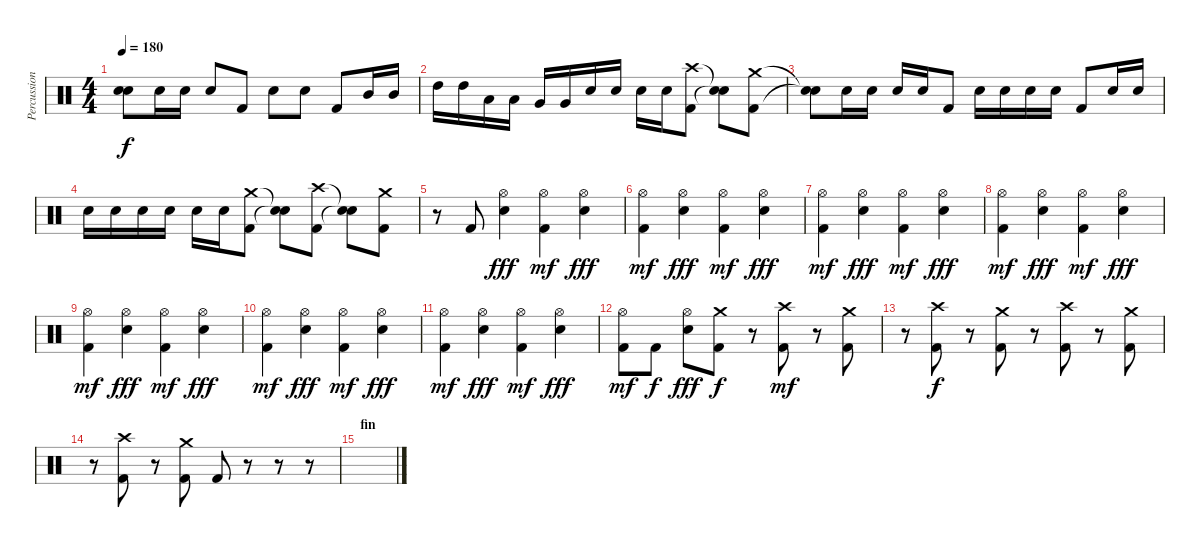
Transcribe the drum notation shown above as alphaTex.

\track ("Percussions" "Percussion") {instrument percussion}
\staff {score}
\articulation defaults
\ts (4 4)
\tempo 180
\clef neutral
\ks c
("Snare (hit)"{t} "Snare (hit)"{t}).8{dy f} "Electric Snare (hit)".16 "Electric Snare (hit)".16 "Electric Snare (hit)".8 "Kick (hit) 2".8 "Electric Snare (hit)".8 "Electric Snare (hit)".8 "Kick (hit) 2".8 "Mid Tom (hit)".16 "Mid Tom (hit)".16 |
"High Tom (hit)".16 "High Tom (hit)".16 "Low Tom (hit)".16 "Low Tom (hit)".16 "Very Low Tom (hit)".16 "Very Low Tom (hit)".16 "Electric Snare (hit)".16 "Electric Snare (hit)".16 "Electric Snare (hit)".16 "Electric Snare (hit)".16 ("Crash high (hit)" "Kick (hit) 2").8 ("Snare (hit)"{t} "Snare (hit)"{t}).8 ("Crash medium (hit)" "Kick (hit) 2").8 |
("Snare (hit)"{t} "Snare (hit)"{t}).8 "Electric Snare (hit)".16 "Electric Snare (hit)".16 "Electric Snare (hit)".16 "Electric Snare (hit)".16 "Kick (hit) 2".8 "Electric Snare (hit)".16 "Electric Snare (hit)".16 "Electric Snare (hit)".16 "Electric Snare (hit)".16 "Kick (hit) 2".8 "Electric Snare (hit)".16 "Electric Snare (hit)".16 |
"Electric Snare (hit)".16 "Electric Snare (hit)".16 "Electric Snare (hit)".16 "Electric Snare (hit)".16 "Electric Snare (hit)".16 "Electric Snare (hit)".16 ("Crash medium (hit)" "Kick (hit) 2").8 ("Snare (hit)"{t} "Snare (hit)"{t}).8 ("Crash high (hit)" "Kick (hit) 2").8 ("Snare (hit)"{t} "Snare (hit)"{t}).8 ("Crash medium (hit)" "Kick (hit) 2").8 |
r.8 "Kick (hit) 2".8 ("Hi-Hat (open)" "Electric Snare (hit)").4{dy fff} ("Hi-Hat (open)" "Kick (hit) 2").4{dy mf} ("Hi-Hat (open)" "Electric Snare (hit)").4{dy fff} |
("Hi-Hat (open)" "Kick (hit) 2").4{dy mf} ("Hi-Hat (open)" "Electric Snare (hit)").4{dy fff} ("Hi-Hat (open)" "Kick (hit) 2").4{dy mf} ("Hi-Hat (open)" "Electric Snare (hit)").4{dy fff} |
("Hi-Hat (open)" "Kick (hit) 2").4{dy mf} ("Hi-Hat (open)" "Electric Snare (hit)").4{dy fff} ("Hi-Hat (open)" "Kick (hit) 2").4{dy mf} ("Hi-Hat (open)" "Electric Snare (hit)").4{dy fff} |
("Hi-Hat (open)" "Kick (hit) 2").4{dy mf} ("Hi-Hat (open)" "Electric Snare (hit)").4{dy fff} ("Hi-Hat (open)" "Kick (hit) 2").4{dy mf} ("Hi-Hat (open)" "Electric Snare (hit)").4{dy fff} |
("Hi-Hat (open)" "Kick (hit) 2").4{dy mf} ("Hi-Hat (open)" "Electric Snare (hit)").4{dy fff} ("Hi-Hat (open)" "Kick (hit) 2").4{dy mf} ("Hi-Hat (open)" "Electric Snare (hit)").4{dy fff} |
("Hi-Hat (open)" "Kick (hit) 2").4{dy mf} ("Hi-Hat (open)" "Electric Snare (hit)").4{dy fff} ("Hi-Hat (open)" "Kick (hit) 2").4{dy mf} ("Hi-Hat (open)" "Electric Snare (hit)").4{dy fff} |
("Hi-Hat (open)" "Kick (hit) 2").4{dy mf} ("Hi-Hat (open)" "Electric Snare (hit)").4{dy fff} ("Hi-Hat (open)" "Kick (hit) 2").4{dy mf} ("Hi-Hat (open)" "Electric Snare (hit)").4{dy fff} |
("Hi-Hat (open)" "Kick (hit) 2").8{dy mf} "Kick (hit) 2".8{dy f} ("Hi-Hat (open)" "Electric Snare (hit)").8{dy fff} ("Crash medium (hit)" "Kick (hit) 2").8{dy f} r.8 ("Crash high (hit)" "Kick (hit) 2").8{dy mf} r.8 ("Crash medium (hit)" "Kick (hit) 2").8 |
r.8 ("Crash high (hit)" "Kick (hit) 2").8{dy f} r.8 ("Crash medium (hit)" "Kick (hit) 2").8 r.8 ("Crash high (hit)" "Kick (hit) 2").8 r.8 ("Crash medium (hit)" "Kick (hit) 2").8 |
r.8 ("Crash high (hit)" "Kick (hit) 2").8 r.8 ("Crash medium (hit)" "Kick (hit) 2").8 "Kick (hit) 2".8 r.8 r.8 r.8 |
\section ("" "fin")
